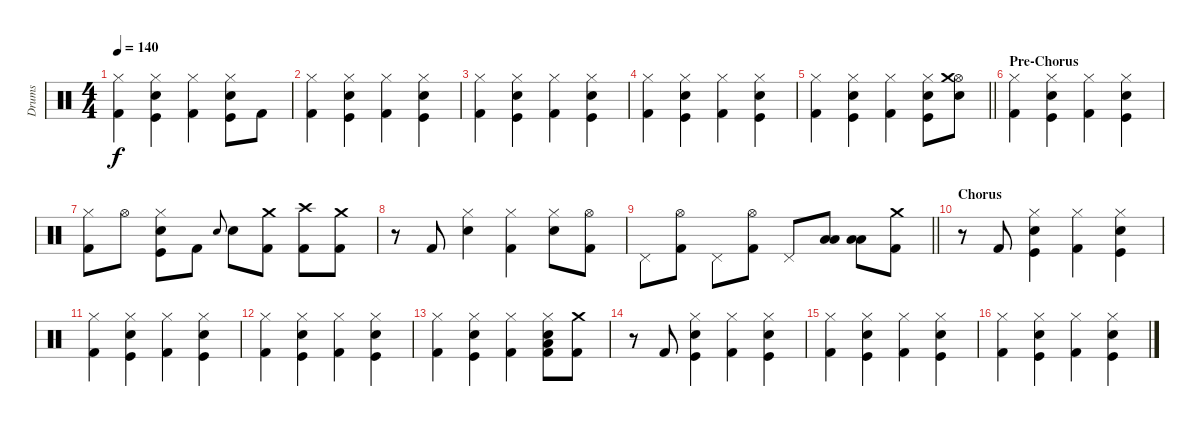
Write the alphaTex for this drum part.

\track ("Drums" "Drums") {instrument percussion}
\staff {score}
\articulation defaults
\ts (4 4)
\tempo 140
\clef neutral
\ks c
("Hi-Hat (closed)" "Kick (hit) 2").4{dy f} ("Hi-Hat (closed)" "Electric Snare (hit)" "Kick (hit)").4 ("Hi-Hat (closed)" "Kick (hit) 2").4 ("Hi-Hat (closed)" "Electric Snare (hit)" "Kick (hit)").8 "Kick (hit) 2".8 |
("Hi-Hat (closed)" "Kick (hit) 2").4 ("Hi-Hat (closed)" "Electric Snare (hit)" "Kick (hit)").4 ("Hi-Hat (closed)" "Kick (hit) 2").4 ("Hi-Hat (closed)" "Electric Snare (hit)" "Kick (hit)").4 |
("Hi-Hat (closed)" "Kick (hit) 2").4 ("Hi-Hat (closed)" "Electric Snare (hit)" "Kick (hit)").4 ("Hi-Hat (closed)" "Kick (hit) 2").4 ("Hi-Hat (closed)" "Electric Snare (hit)" "Kick (hit)").4 |
("Hi-Hat (closed)" "Kick (hit) 2").4 ("Hi-Hat (closed)" "Electric Snare (hit)" "Kick (hit)").4 ("Hi-Hat (closed)" "Kick (hit) 2").4 ("Hi-Hat (closed)" "Electric Snare (hit)" "Kick (hit)").4 |
\barLineRight lightlight
("Hi-Hat (closed)" "Kick (hit) 2").4 ("Hi-Hat (closed)" "Electric Snare (hit)" "Kick (hit)").4 ("Hi-Hat (closed)" "Kick (hit) 2").4 ("Hi-Hat (closed)" "Electric Snare (hit)" "Kick (hit)").8 ("Hi-Hat (open)" "Electric Snare (hit)" "Crash medium (hit)").8 |
\section ("" "Pre-Chorus")
("Hi-Hat (closed)" "Kick (hit) 2").4 ("Hi-Hat (closed)" "Electric Snare (hit)" "Kick (hit)").4 ("Hi-Hat (closed)" "Kick (hit) 2").4 ("Hi-Hat (closed)" "Electric Snare (hit)" "Kick (hit)").4 |
("Hi-Hat (closed)" "Kick (hit) 2").8 "Hi-Hat (open)".8 ("Hi-Hat (closed)" "Electric Snare (hit)" "Kick (hit)").8 "Kick (hit) 2".8 "Electric Snare (hit)".8{gr onbeat} "Electric Snare (hit)".8 ("Crash medium (hit)" "Kick (hit) 2").8 ("Crash high (hit)" "Kick (hit) 2").8 ("Crash medium (hit)" "Kick (hit) 2").8 |
r.8 "Kick (hit) 2".8 ("Hi-Hat (closed)" "Electric Snare (hit)").4 ("Hi-Hat (closed)" "Kick (hit) 2").4 ("Hi-Hat (closed)" "Electric Snare (hit)").8 ("Hi-Hat (open)" "Kick (hit) 2").8 |
\barLineRight lightlight "Pedal Hi-Hat (hit)".8
("Hi-Hat (open)" "Kick (hit) 2").8 "Pedal Hi-Hat (hit)".8 ("Hi-Hat (open)" "Kick (hit) 2").8 "Pedal Hi-Hat (hit)".8 ("Low Floor Tom (hit)" "Low Tom (hit)").8 ("Low Floor Tom (hit)" "Low Tom (hit)").8 ("Crash medium (hit)" "Kick (hit) 2").8 |
\section ("" "Chorus")
r.8 "Kick (hit) 2".8 ("Hi-Hat (closed)" "Electric Snare (hit)" "Kick (hit)").4 ("Hi-Hat (closed)" "Kick (hit) 2").4 ("Hi-Hat (closed)" "Electric Snare (hit)" "Kick (hit)").4 |
("Hi-Hat (closed)" "Kick (hit) 2").4 ("Hi-Hat (closed)" "Electric Snare (hit)" "Kick (hit)").4 ("Hi-Hat (closed)" "Kick (hit) 2").4 ("Hi-Hat (closed)" "Electric Snare (hit)" "Kick (hit)").4 |
("Hi-Hat (closed)" "Kick (hit) 2").4 ("Hi-Hat (closed)" "Electric Snare (hit)" "Kick (hit)").4 ("Hi-Hat (closed)" "Kick (hit) 2").4 ("Hi-Hat (closed)" "Electric Snare (hit)" "Kick (hit)").4 |
("Hi-Hat (closed)" "Kick (hit) 2").4 ("Hi-Hat (closed)" "Electric Snare (hit)" "Kick (hit)").4 ("Hi-Hat (closed)" "Kick (hit) 2").4 ("Hi-Hat (closed)" "Kick (hit) 2" "Low Floor Tom (hit)" "Electric Snare (hit)").8 ("Crash medium (hit)" "Kick (hit) 2").8 |
r.8 "Kick (hit) 2".8 ("Hi-Hat (closed)" "Electric Snare (hit)" "Kick (hit)").4 ("Hi-Hat (closed)" "Kick (hit) 2").4 ("Hi-Hat (closed)" "Electric Snare (hit)" "Kick (hit)").4 |
("Hi-Hat (closed)" "Kick (hit) 2").4 ("Hi-Hat (closed)" "Electric Snare (hit)" "Kick (hit)").4 ("Hi-Hat (closed)" "Kick (hit) 2").4 ("Hi-Hat (closed)" "Electric Snare (hit)" "Kick (hit)").4 |
("Hi-Hat (closed)" "Kick (hit) 2").4 ("Hi-Hat (closed)" "Electric Snare (hit)" "Kick (hit)").4 ("Hi-Hat (closed)" "Kick (hit) 2").4 ("Hi-Hat (closed)" "Electric Snare (hit)" "Kick (hit)").4
